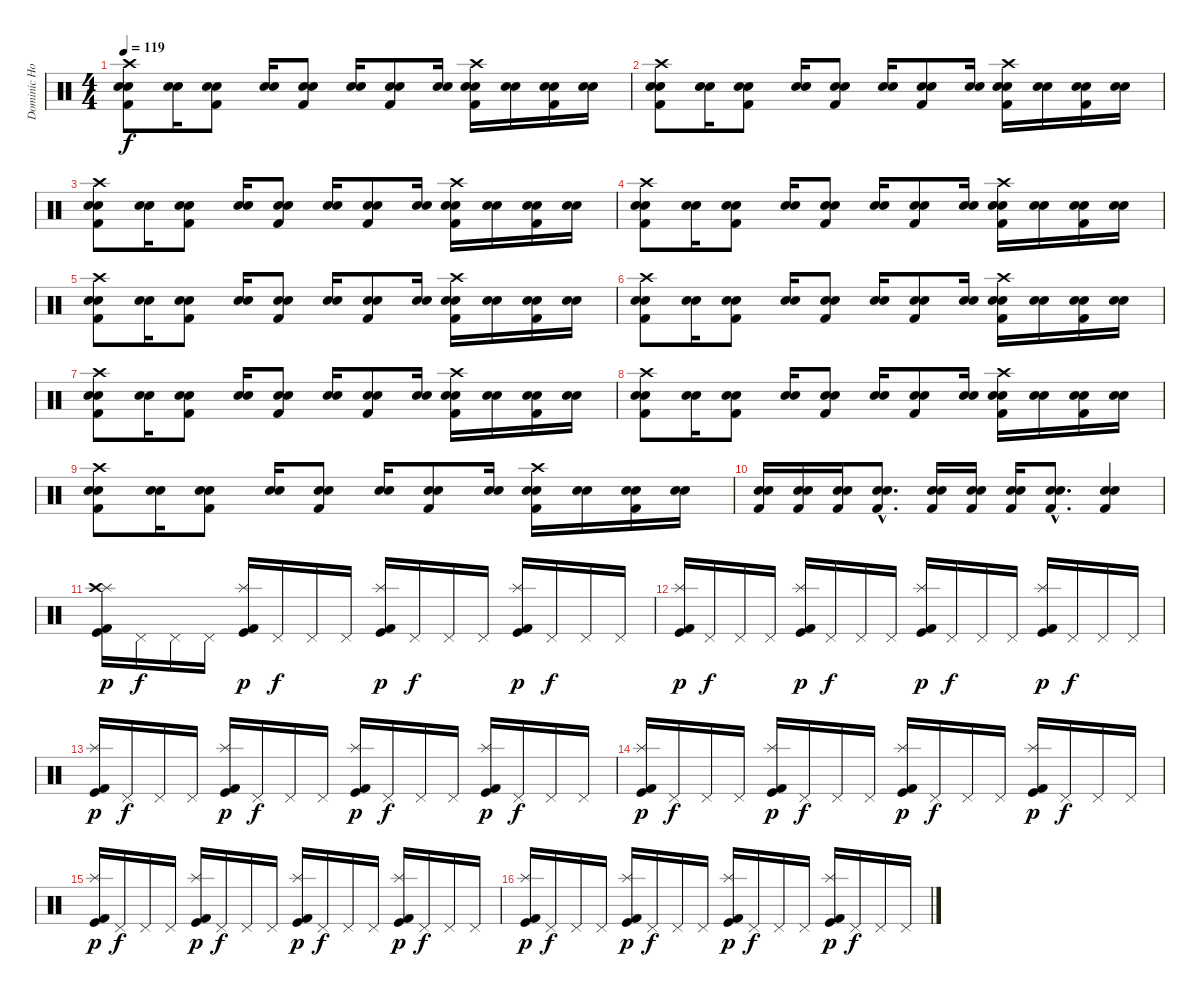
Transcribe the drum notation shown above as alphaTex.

\track ("Dominic Howard" "Dominic Ho") {instrument percussion}
\staff {score}
\articulation defaults
\ts (4 4)
\tempo 119
\clef neutral
\ks c
("Crash high (hit)" "Electric Snare (hit)" "Snare (hit) 2" "Kick (hit) 2").8{dy f} ("Electric Snare (hit)" "Snare (hit) 2").16 ("Electric Snare (hit)" "Snare (hit) 2" "Kick (hit) 2").8 ("Electric Snare (hit)" "Snare (hit) 2").16 ("Electric Snare (hit)" "Snare (hit) 2" "Kick (hit) 2").8 ("Electric Snare (hit)" "Snare (hit) 2").16 ("Electric Snare (hit)" "Snare (hit) 2" "Kick (hit) 2").8 ("Electric Snare (hit)" "Snare (hit) 2").16 ("Crash high (hit)" "Electric Snare (hit)" "Snare (hit) 2" "Kick (hit) 2").16 ("Electric Snare (hit)" "Snare (hit) 2").16 ("Electric Snare (hit)" "Snare (hit) 2" "Kick (hit) 2").16 ("Electric Snare (hit)" "Snare (hit) 2").16 |
("Crash high (hit)" "Electric Snare (hit)" "Snare (hit) 2" "Kick (hit) 2").8 ("Electric Snare (hit)" "Snare (hit) 2").16 ("Electric Snare (hit)" "Snare (hit) 2" "Kick (hit) 2").8 ("Electric Snare (hit)" "Snare (hit) 2").16 ("Electric Snare (hit)" "Snare (hit) 2" "Kick (hit) 2").8 ("Electric Snare (hit)" "Snare (hit) 2").16 ("Electric Snare (hit)" "Snare (hit) 2" "Kick (hit) 2").8 ("Electric Snare (hit)" "Snare (hit) 2").16 ("Crash high (hit)" "Electric Snare (hit)" "Snare (hit) 2" "Kick (hit) 2").16 ("Electric Snare (hit)" "Snare (hit) 2").16 ("Electric Snare (hit)" "Snare (hit) 2" "Kick (hit) 2").16 ("Electric Snare (hit)" "Snare (hit) 2").16 |
("Crash high (hit)" "Electric Snare (hit)" "Snare (hit) 2" "Kick (hit) 2").8 ("Electric Snare (hit)" "Snare (hit) 2").16 ("Electric Snare (hit)" "Snare (hit) 2" "Kick (hit) 2").8 ("Electric Snare (hit)" "Snare (hit) 2").16 ("Electric Snare (hit)" "Snare (hit) 2" "Kick (hit) 2").8 ("Electric Snare (hit)" "Snare (hit) 2").16 ("Electric Snare (hit)" "Snare (hit) 2" "Kick (hit) 2").8 ("Electric Snare (hit)" "Snare (hit) 2").16 ("Crash high (hit)" "Electric Snare (hit)" "Snare (hit) 2" "Kick (hit) 2").16 ("Electric Snare (hit)" "Snare (hit) 2").16 ("Electric Snare (hit)" "Snare (hit) 2" "Kick (hit) 2").16 ("Electric Snare (hit)" "Snare (hit) 2").16 |
("Crash high (hit)" "Electric Snare (hit)" "Snare (hit) 2" "Kick (hit) 2").8 ("Electric Snare (hit)" "Snare (hit) 2").16 ("Electric Snare (hit)" "Snare (hit) 2" "Kick (hit) 2").8 ("Electric Snare (hit)" "Snare (hit) 2").16 ("Electric Snare (hit)" "Snare (hit) 2" "Kick (hit) 2").8 ("Electric Snare (hit)" "Snare (hit) 2").16 ("Electric Snare (hit)" "Snare (hit) 2" "Kick (hit) 2").8 ("Electric Snare (hit)" "Snare (hit) 2").16 ("Crash high (hit)" "Electric Snare (hit)" "Snare (hit) 2" "Kick (hit) 2").16 ("Electric Snare (hit)" "Snare (hit) 2").16 ("Electric Snare (hit)" "Snare (hit) 2" "Kick (hit) 2").16 ("Electric Snare (hit)" "Snare (hit) 2").16 |
("Crash high (hit)" "Electric Snare (hit)" "Snare (hit) 2" "Kick (hit) 2").8 ("Electric Snare (hit)" "Snare (hit) 2").16 ("Electric Snare (hit)" "Snare (hit) 2" "Kick (hit) 2").8 ("Electric Snare (hit)" "Snare (hit) 2").16 ("Electric Snare (hit)" "Snare (hit) 2" "Kick (hit) 2").8 ("Electric Snare (hit)" "Snare (hit) 2").16 ("Electric Snare (hit)" "Snare (hit) 2" "Kick (hit) 2").8 ("Electric Snare (hit)" "Snare (hit) 2").16 ("Crash high (hit)" "Electric Snare (hit)" "Snare (hit) 2" "Kick (hit) 2").16 ("Electric Snare (hit)" "Snare (hit) 2").16 ("Electric Snare (hit)" "Snare (hit) 2" "Kick (hit) 2").16 ("Electric Snare (hit)" "Snare (hit) 2").16 |
("Crash high (hit)" "Electric Snare (hit)" "Snare (hit) 2" "Kick (hit) 2").8 ("Electric Snare (hit)" "Snare (hit) 2").16 ("Electric Snare (hit)" "Snare (hit) 2" "Kick (hit) 2").8 ("Electric Snare (hit)" "Snare (hit) 2").16 ("Electric Snare (hit)" "Snare (hit) 2" "Kick (hit) 2").8 ("Electric Snare (hit)" "Snare (hit) 2").16 ("Electric Snare (hit)" "Snare (hit) 2" "Kick (hit) 2").8 ("Electric Snare (hit)" "Snare (hit) 2").16 ("Crash high (hit)" "Electric Snare (hit)" "Snare (hit) 2" "Kick (hit) 2").16 ("Electric Snare (hit)" "Snare (hit) 2").16 ("Electric Snare (hit)" "Snare (hit) 2" "Kick (hit) 2").16 ("Electric Snare (hit)" "Snare (hit) 2").16 |
("Crash high (hit)" "Electric Snare (hit)" "Snare (hit) 2" "Kick (hit) 2").8 ("Electric Snare (hit)" "Snare (hit) 2").16 ("Electric Snare (hit)" "Snare (hit) 2" "Kick (hit) 2").8 ("Electric Snare (hit)" "Snare (hit) 2").16 ("Electric Snare (hit)" "Snare (hit) 2" "Kick (hit) 2").8 ("Electric Snare (hit)" "Snare (hit) 2").16 ("Electric Snare (hit)" "Snare (hit) 2" "Kick (hit) 2").8 ("Electric Snare (hit)" "Snare (hit) 2").16 ("Crash high (hit)" "Electric Snare (hit)" "Snare (hit) 2" "Kick (hit) 2").16 ("Electric Snare (hit)" "Snare (hit) 2").16 ("Electric Snare (hit)" "Snare (hit) 2" "Kick (hit) 2").16 ("Electric Snare (hit)" "Snare (hit) 2").16 |
("Crash high (hit)" "Electric Snare (hit)" "Snare (hit) 2" "Kick (hit) 2").8 ("Electric Snare (hit)" "Snare (hit) 2").16 ("Electric Snare (hit)" "Snare (hit) 2" "Kick (hit) 2").8 ("Electric Snare (hit)" "Snare (hit) 2").16 ("Electric Snare (hit)" "Snare (hit) 2" "Kick (hit) 2").8 ("Electric Snare (hit)" "Snare (hit) 2").16 ("Electric Snare (hit)" "Snare (hit) 2" "Kick (hit) 2").8 ("Electric Snare (hit)" "Snare (hit) 2").16 ("Crash high (hit)" "Electric Snare (hit)" "Snare (hit) 2" "Kick (hit) 2").16 ("Electric Snare (hit)" "Snare (hit) 2").16 ("Electric Snare (hit)" "Snare (hit) 2" "Kick (hit) 2").16 ("Electric Snare (hit)" "Snare (hit) 2").16 |
("Crash high (hit)" "Electric Snare (hit)" "Snare (hit) 2" "Kick (hit) 2").8 ("Electric Snare (hit)" "Snare (hit) 2").16 ("Electric Snare (hit)" "Snare (hit) 2" "Kick (hit) 2").8 ("Electric Snare (hit)" "Snare (hit) 2").16 ("Electric Snare (hit)" "Snare (hit) 2" "Kick (hit) 2").8 ("Electric Snare (hit)" "Snare (hit) 2").16 ("Electric Snare (hit)" "Snare (hit) 2" "Kick (hit) 2").8 ("Electric Snare (hit)" "Snare (hit) 2").16 ("Crash high (hit)" "Electric Snare (hit)" "Snare (hit) 2" "Kick (hit) 2").16 ("Electric Snare (hit)" "Snare (hit) 2").16 ("Electric Snare (hit)" "Snare (hit) 2" "Kick (hit) 2").16 ("Electric Snare (hit)" "Snare (hit) 2").16 |
("Kick (hit) 2" "Electric Snare (hit)" "Snare (hit) 2").16 ("Kick (hit) 2" "Electric Snare (hit)" "Snare (hit) 2").16 ("Kick (hit) 2" "Electric Snare (hit)" "Snare (hit) 2").16 ("Kick (hit) 2"{hac} "Electric Snare (hit)"{hac} "Snare (hit) 2"{hac}).8{d} ("Kick (hit) 2" "Electric Snare (hit)" "Snare (hit) 2").16 ("Kick (hit) 2" "Electric Snare (hit)" "Snare (hit) 2").16 ("Kick (hit) 2" "Electric Snare (hit)" "Snare (hit) 2").16 ("Kick (hit) 2"{hac} "Electric Snare (hit)"{hac} "Snare (hit) 2"{hac}).8{d} ("Kick (hit) 2" "Electric Snare (hit)" "Snare (hit) 2").4 |
("Splash (hit)" "Kick (hit)" "Kick (hit) 2" "Crash high (hit)").16{dy p} "Pedal Hi-Hat (hit)".16{dy f} "Pedal Hi-Hat (hit)".16 "Pedal Hi-Hat (hit)".16 ("Splash (hit)" "Kick (hit)" "Kick (hit) 2").16{dy p} "Pedal Hi-Hat (hit)".16{dy f} "Pedal Hi-Hat (hit)".16 "Pedal Hi-Hat (hit)".16 ("Splash (hit)" "Kick (hit)" "Kick (hit) 2").16{dy p} "Pedal Hi-Hat (hit)".16{dy f} "Pedal Hi-Hat (hit)".16 "Pedal Hi-Hat (hit)".16 ("Splash (hit)" "Kick (hit)" "Kick (hit) 2").16{dy p} "Pedal Hi-Hat (hit)".16{dy f} "Pedal Hi-Hat (hit)".16 "Pedal Hi-Hat (hit)".16 |
("Splash (hit)" "Kick (hit)" "Kick (hit) 2").16{dy p} "Pedal Hi-Hat (hit)".16{dy f} "Pedal Hi-Hat (hit)".16 "Pedal Hi-Hat (hit)".16 ("Splash (hit)" "Kick (hit)" "Kick (hit) 2").16{dy p} "Pedal Hi-Hat (hit)".16{dy f} "Pedal Hi-Hat (hit)".16 "Pedal Hi-Hat (hit)".16 ("Splash (hit)" "Kick (hit)" "Kick (hit) 2").16{dy p} "Pedal Hi-Hat (hit)".16{dy f} "Pedal Hi-Hat (hit)".16 "Pedal Hi-Hat (hit)".16 ("Splash (hit)" "Kick (hit)" "Kick (hit) 2").16{dy p} "Pedal Hi-Hat (hit)".16{dy f} "Pedal Hi-Hat (hit)".16 "Pedal Hi-Hat (hit)".16 |
("Splash (hit)" "Kick (hit)" "Kick (hit) 2").16{dy p} "Pedal Hi-Hat (hit)".16{dy f} "Pedal Hi-Hat (hit)".16 "Pedal Hi-Hat (hit)".16 ("Splash (hit)" "Kick (hit)" "Kick (hit) 2").16{dy p} "Pedal Hi-Hat (hit)".16{dy f} "Pedal Hi-Hat (hit)".16 "Pedal Hi-Hat (hit)".16 ("Splash (hit)" "Kick (hit)" "Kick (hit) 2").16{dy p} "Pedal Hi-Hat (hit)".16{dy f} "Pedal Hi-Hat (hit)".16 "Pedal Hi-Hat (hit)".16 ("Splash (hit)" "Kick (hit)" "Kick (hit) 2").16{dy p} "Pedal Hi-Hat (hit)".16{dy f} "Pedal Hi-Hat (hit)".16 "Pedal Hi-Hat (hit)".16 |
("Splash (hit)" "Kick (hit)" "Kick (hit) 2").16{dy p} "Pedal Hi-Hat (hit)".16{dy f} "Pedal Hi-Hat (hit)".16 "Pedal Hi-Hat (hit)".16 ("Splash (hit)" "Kick (hit)" "Kick (hit) 2").16{dy p} "Pedal Hi-Hat (hit)".16{dy f} "Pedal Hi-Hat (hit)".16 "Pedal Hi-Hat (hit)".16 ("Splash (hit)" "Kick (hit)" "Kick (hit) 2").16{dy p} "Pedal Hi-Hat (hit)".16{dy f} "Pedal Hi-Hat (hit)".16 "Pedal Hi-Hat (hit)".16 ("Splash (hit)" "Kick (hit)" "Kick (hit) 2").16{dy p} "Pedal Hi-Hat (hit)".16{dy f} "Pedal Hi-Hat (hit)".16 "Pedal Hi-Hat (hit)".16 |
("Splash (hit)" "Kick (hit)" "Kick (hit) 2").16{dy p} "Pedal Hi-Hat (hit)".16{dy f} "Pedal Hi-Hat (hit)".16 "Pedal Hi-Hat (hit)".16 ("Splash (hit)" "Kick (hit)" "Kick (hit) 2").16{dy p} "Pedal Hi-Hat (hit)".16{dy f} "Pedal Hi-Hat (hit)".16 "Pedal Hi-Hat (hit)".16 ("Splash (hit)" "Kick (hit)" "Kick (hit) 2").16{dy p} "Pedal Hi-Hat (hit)".16{dy f} "Pedal Hi-Hat (hit)".16 "Pedal Hi-Hat (hit)".16 ("Splash (hit)" "Kick (hit)" "Kick (hit) 2").16{dy p} "Pedal Hi-Hat (hit)".16{dy f} "Pedal Hi-Hat (hit)".16 "Pedal Hi-Hat (hit)".16 |
("Splash (hit)" "Kick (hit)" "Kick (hit) 2").16{dy p} "Pedal Hi-Hat (hit)".16{dy f} "Pedal Hi-Hat (hit)".16 "Pedal Hi-Hat (hit)".16 ("Splash (hit)" "Kick (hit)" "Kick (hit) 2").16{dy p} "Pedal Hi-Hat (hit)".16{dy f} "Pedal Hi-Hat (hit)".16 "Pedal Hi-Hat (hit)".16 ("Splash (hit)" "Kick (hit)" "Kick (hit) 2").16{dy p} "Pedal Hi-Hat (hit)".16{dy f} "Pedal Hi-Hat (hit)".16 "Pedal Hi-Hat (hit)".16 ("Splash (hit)" "Kick (hit)" "Kick (hit) 2").16{dy p} "Pedal Hi-Hat (hit)".16{dy f} "Pedal Hi-Hat (hit)".16 "Pedal Hi-Hat (hit)".16
